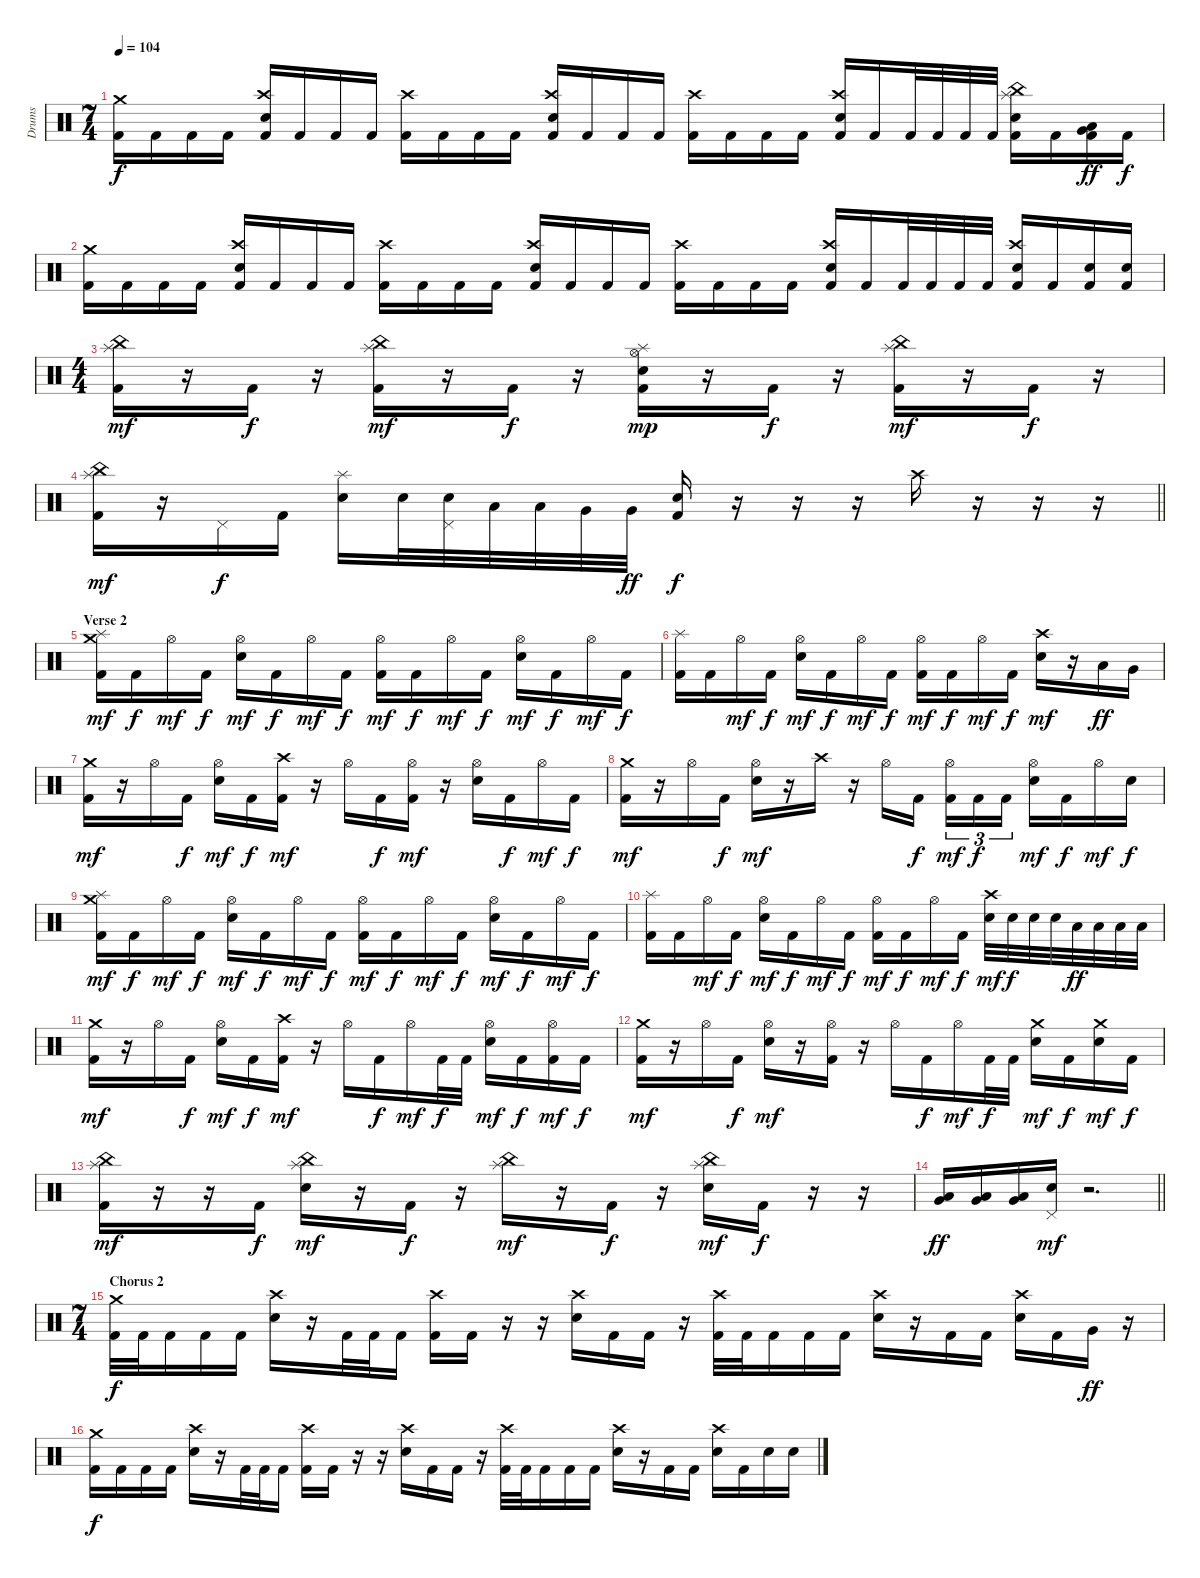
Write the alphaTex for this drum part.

\track ("Drums" "Drums") {instrument percussion}
\staff {score}
\articulation defaults
\ts (7 4)
\tempo 104
\clef neutral
\ks c
("Crash medium (hit)" "Kick (hit) 2").16{dy f} "Kick (hit) 2".16 "Kick (hit) 2".16 "Kick (hit) 2".16 ("Crash high (hit)" "Snare (hit) 2" "Kick (hit) 2").16 "Kick (hit) 2".16 "Kick (hit) 2".16 "Kick (hit) 2".16 ("Crash high (hit)" "Kick (hit) 2").16 "Kick (hit) 2".16 "Kick (hit) 2".16 "Kick (hit) 2".16 ("Crash high (hit)" "Snare (hit) 2" "Kick (hit) 2").16 "Kick (hit) 2".16 "Kick (hit) 2".16 "Kick (hit) 2".16 ("Crash high (hit)" "Kick (hit) 2").16 "Kick (hit) 2".16 "Kick (hit) 2".16 "Kick (hit) 2".16 ("Crash high (hit)" "Snare (hit) 2" "Kick (hit) 2").16 "Kick (hit) 2".16 "Kick (hit) 2".32 "Kick (hit) 2".32 "Kick (hit) 2".32 "Kick (hit) 2".32 ("China (hit)" "Splash (hit)" "Snare (hit) 2" "Kick (hit) 2").16 "Kick (hit) 2".16 ("Very Low Tom (hit)" "Low Floor Tom (hit)" "Kick (hit) 2").16{dy ff} "Kick (hit) 2".16{dy f} |
("Crash medium (hit)" "Kick (hit) 2").16 "Kick (hit) 2".16 "Kick (hit) 2".16 "Kick (hit) 2".16 ("Crash high (hit)" "Snare (hit) 2" "Kick (hit) 2").16 "Kick (hit) 2".16 "Kick (hit) 2".16 "Kick (hit) 2".16 ("Crash high (hit)" "Kick (hit) 2").16 "Kick (hit) 2".16 "Kick (hit) 2".16 "Kick (hit) 2".16 ("Crash high (hit)" "Snare (hit) 2" "Kick (hit) 2").16 "Kick (hit) 2".16 "Kick (hit) 2".16 "Kick (hit) 2".16 ("Crash high (hit)" "Kick (hit) 2").16 "Kick (hit) 2".16 "Kick (hit) 2".16 "Kick (hit) 2".16 ("Crash high (hit)" "Snare (hit) 2" "Kick (hit) 2").16 "Kick (hit) 2".16 "Kick (hit) 2".32 "Kick (hit) 2".32 "Kick (hit) 2".32 "Kick (hit) 2".32 ("Crash high (hit)" "Snare (hit) 2" "Kick (hit) 2").16 "Kick (hit) 2".16 ("Snare (hit) 2" "Kick (hit) 2").16 ("Snare (hit) 2" "Kick (hit) 2").16 |
\ts (4 4)
("China (hit)" "Splash (hit)" "Kick (hit) 2").16{dy mf} r.16 "Kick (hit) 2".16{dy f} r.16 ("China (hit)" "Splash (hit)" "Kick (hit) 2").16{dy mf} r.16 "Kick (hit) 2".16{dy f} r.16 ("Splash (hit)" "Hi-Hat (open)" "Snare (hit) 2" "Kick (hit) 2").16{dy mp} r.16 "Kick (hit) 2".16{dy f} r.16 ("China (hit)" "Splash (hit)" "Kick (hit) 2").16{dy mf} r.16 "Kick (hit) 2".16{dy f} r.16 |
\barLineRight lightlight
("China (hit)" "Splash (hit)" "Kick (hit) 2").16{dy mf} r.16 "Pedal Hi-Hat (hit)".16{dy f} "Kick (hit) 2".16 ("Splash (hit)" "Snare (hit) 2").16 "Snare (hit) 2".32 ("Pedal Hi-Hat (hit)" "Snare (hit) 2").32 "Low Tom (hit)".32 "Low Tom (hit)".32 "Very Low Tom (hit)".32 "Very Low Tom (hit)".32{dy ff} ("Snare (hit) 2" "Kick (hit) 2").16{dy f} r.16 r.16 r.16 "Crash high (hit)".16 r.16 r.16 r.16 |
\section ("" "Verse 2")
("Crash medium (hit)" "Splash (hit)" "Kick (hit) 2").16{dy mf} "Kick (hit) 2".16{dy f} "Hi-Hat (open)".16{dy mf} "Kick (hit) 2".16{dy f} ("Hi-Hat (open)" "Snare (hit) 2").16{dy mf} "Kick (hit) 2".16{dy f} "Hi-Hat (open)".16{dy mf} "Kick (hit) 2".16{dy f} ("Hi-Hat (open)" "Kick (hit) 2").16{dy mf} "Kick (hit) 2".16{dy f} "Hi-Hat (open)".16{dy mf} "Kick (hit) 2".16{dy f} ("Hi-Hat (open)" "Snare (hit) 2").16{dy mf} "Kick (hit) 2".16{dy f} "Hi-Hat (open)".16{dy mf} "Kick (hit) 2".16{dy f} |
("Splash (hit)" "Kick (hit) 2").16 "Kick (hit) 2".16 "Hi-Hat (open)".16{dy mf} "Kick (hit) 2".16{dy f} ("Hi-Hat (open)" "Snare (hit) 2").16{dy mf} "Kick (hit) 2".16{dy f} "Hi-Hat (open)".16{dy mf} "Kick (hit) 2".16{dy f} ("Hi-Hat (open)" "Kick (hit) 2").16{dy mf} "Kick (hit) 2".16{dy f} "Hi-Hat (open)".16{dy mf} "Kick (hit) 2".16{dy f} ("Crash high (hit)" "Snare (hit) 2").16{dy mf} r.16 "Low Tom (hit)".16{dy ff} "Very Low Tom (hit)".16 |
("Crash medium (hit)" "Kick (hit) 2").16{dy mf} r.16 "Hi-Hat (open)".16 "Kick (hit) 2".16{dy f} ("Hi-Hat (open)" "Snare (hit) 2").16{dy mf} "Kick (hit) 2".16{dy f} ("Crash high (hit)" "Kick (hit) 2").16{dy mf} r.16 "Hi-Hat (open)".16 "Kick (hit) 2".16{dy f} ("Hi-Hat (open)" "Kick (hit) 2").16{dy mf} r.16 ("Hi-Hat (open)" "Snare (hit) 2").16 "Kick (hit) 2".16{dy f} "Hi-Hat (open)".16{dy mf} "Kick (hit) 2".16{dy f} |
("Crash medium (hit)" "Kick (hit) 2").16{dy mf} r.16 "Hi-Hat (open)".16 "Kick (hit) 2".16{dy f} ("Hi-Hat (open)" "Snare (hit) 2").16{dy mf} r.16 "Crash high (hit)".16 r.16 "Hi-Hat (open)".16 "Kick (hit) 2".16{dy f} ("Hi-Hat (open)" "Kick (hit) 2").16{tu (3 2) dy mf} "Kick (hit) 2".16{tu (3 2) dy f} "Kick (hit) 2".16{tu (3 2)} ("Hi-Hat (open)" "Snare (hit) 2").16{dy mf} "Kick (hit) 2".16{dy f} "Hi-Hat (open)".16{dy mf} "Snare (hit) 2".16{dy f} |
("Crash medium (hit)" "Splash (hit)" "Kick (hit) 2").16{dy mf} "Kick (hit) 2".16{dy f} "Hi-Hat (open)".16{dy mf} "Kick (hit) 2".16{dy f} ("Hi-Hat (open)" "Snare (hit) 2").16{dy mf} "Kick (hit) 2".16{dy f} "Hi-Hat (open)".16{dy mf} "Kick (hit) 2".16{dy f} ("Hi-Hat (open)" "Kick (hit) 2").16{dy mf} "Kick (hit) 2".16{dy f} "Hi-Hat (open)".16{dy mf} "Kick (hit) 2".16{dy f} ("Hi-Hat (open)" "Snare (hit) 2").16{dy mf} "Kick (hit) 2".16{dy f} "Hi-Hat (open)".16{dy mf} "Kick (hit) 2".16{dy f} |
("Splash (hit)" "Kick (hit) 2").16 "Kick (hit) 2".16 "Hi-Hat (open)".16{dy mf} "Kick (hit) 2".16{dy f} ("Hi-Hat (open)" "Snare (hit) 2").16{dy mf} "Kick (hit) 2".16{dy f} "Hi-Hat (open)".16{dy mf} "Kick (hit) 2".16{dy f} ("Hi-Hat (open)" "Kick (hit) 2").16{dy mf} "Kick (hit) 2".16{dy f} "Hi-Hat (open)".16{dy mf} "Kick (hit) 2".16{dy f} ("Crash high (hit)" "Snare (hit) 2").32{dy mf} "Snare (hit) 2".32{dy f} "Snare (hit) 2".32 "Snare (hit) 2".32 "Low Tom (hit)".32{dy ff} "Low Tom (hit)".32 "Low Tom (hit)".32 "Low Tom (hit)".32 |
("Crash medium (hit)" "Kick (hit) 2").16{dy mf} r.16 "Hi-Hat (open)".16 "Kick (hit) 2".16{dy f} ("Hi-Hat (open)" "Snare (hit) 2").16{dy mf} "Kick (hit) 2".16{dy f} ("Crash high (hit)" "Kick (hit) 2").16{dy mf} r.16 "Hi-Hat (open)".16 "Kick (hit) 2".16{dy f} "Hi-Hat (open)".16{dy mf} "Kick (hit) 2".32{dy f} "Kick (hit) 2".32 ("Hi-Hat (open)" "Snare (hit) 2").16{dy mf} "Kick (hit) 2".16{dy f} ("Hi-Hat (open)" "Kick (hit) 2").16{dy mf} "Kick (hit) 2".16{dy f} |
("Crash medium (hit)" "Kick (hit) 2").16{dy mf} r.16 "Hi-Hat (open)".16 "Kick (hit) 2".16{dy f} ("Hi-Hat (open)" "Snare (hit) 2").16{dy mf} r.16 ("Hi-Hat (open)" "Kick (hit) 2").16 r.16 "Hi-Hat (open)".16 "Kick (hit) 2".16{dy f} "Hi-Hat (open)".16{dy mf} "Kick (hit) 2".32{dy f} "Kick (hit) 2".32 ("Crash medium (hit)" "Snare (hit) 2").16{dy mf} "Kick (hit) 2".16{dy f} ("Crash medium (hit)" "Snare (hit) 2").16{dy mf} "Kick (hit) 2".16{dy f} |
("China (hit)" "Splash (hit)" "Kick (hit) 2").16{dy mf} r.16 r.16 "Kick (hit) 2".16{dy f} ("China (hit)" "Splash (hit)" "Snare (hit) 2").16{dy mf} r.16 "Kick (hit) 2".16{dy f} r.16 ("China (hit)" "Splash (hit)").16{dy mf} r.16 "Kick (hit) 2".16{dy f} r.16 ("China (hit)" "Splash (hit)" "Snare (hit) 2").16{dy mf} "Kick (hit) 2".16{dy f} r.16 r.16 |
\barLineRight lightlight
("Very Low Tom (hit)" "Low Floor Tom (hit)").16{dy ff} ("Very Low Tom (hit)" "Low Floor Tom (hit)").16 ("Very Low Tom (hit)" "Low Floor Tom (hit)").16 ("Pedal Hi-Hat (hit)" "Snare (hit) 2").16{dy mf} r.2{d} |
\ts (7 4)
\section ("" "Chorus 2")
("Crash medium (hit)" "Kick (hit) 2").32{dy f} "Kick (hit) 2".32 "Kick (hit) 2".16 "Kick (hit) 2".16 "Kick (hit) 2".16 ("Crash high (hit)" "Snare (hit) 2").16 r.16 "Kick (hit) 2".32 "Kick (hit) 2".32 "Kick (hit) 2".16 ("Crash high (hit)" "Kick (hit) 2").16 "Kick (hit) 2".16 r.16 r.16 ("Crash high (hit)" "Snare (hit) 2").16 "Kick (hit) 2".16 "Kick (hit) 2".16 r.16 ("Crash high (hit)" "Kick (hit) 2").32 "Kick (hit) 2".32 "Kick (hit) 2".16 "Kick (hit) 2".16 "Kick (hit) 2".16 ("Crash high (hit)" "Snare (hit) 2").16 r.16 "Kick (hit) 2".16 "Kick (hit) 2".16 ("Crash high (hit)" "Snare (hit) 2").16 "Kick (hit) 2".16 "Very Low Tom (hit)".16{dy ff} r.16 |
("Crash medium (hit)" "Kick (hit) 2").16{dy f} "Kick (hit) 2".16 "Kick (hit) 2".16 "Kick (hit) 2".16 ("Crash high (hit)" "Snare (hit) 2").16 r.16 "Kick (hit) 2".32 "Kick (hit) 2".32 "Kick (hit) 2".16 ("Crash high (hit)" "Kick (hit) 2").16 "Kick (hit) 2".16 r.16 r.16 ("Crash high (hit)" "Snare (hit) 2").16 "Kick (hit) 2".16 "Kick (hit) 2".16 r.16 ("Crash high (hit)" "Kick (hit) 2").32 "Kick (hit) 2".32 "Kick (hit) 2".16 "Kick (hit) 2".16 "Kick (hit) 2".16 ("Crash high (hit)" "Snare (hit) 2").16 r.16 "Kick (hit) 2".16 "Kick (hit) 2".16 ("Crash high (hit)" "Snare (hit) 2").16 "Kick (hit) 2".16 "Snare (hit) 2".16 "Snare (hit) 2".16
